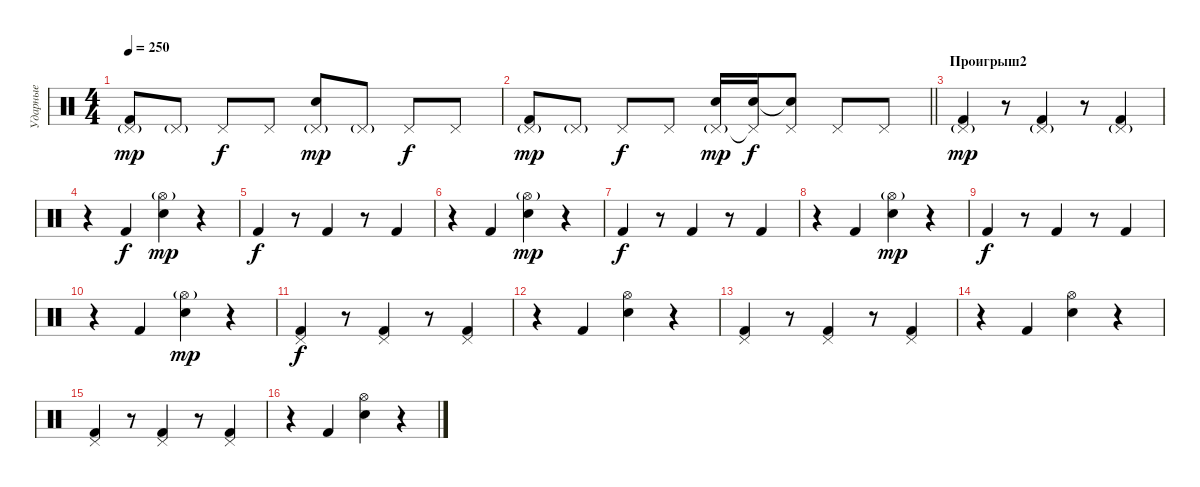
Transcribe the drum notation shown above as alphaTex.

\track ("Ударные" "Ударные") {instrument percussion}
\staff {score}
\articulation defaults
\ts (4 4)
\tempo 250
\clef neutral
\ks c
("Pedal Hi-Hat (hit)"{g} "Kick (hit) 2").8{dy mp} "Pedal Hi-Hat (hit)"{g}.8 "Pedal Hi-Hat (hit)".8{dy f} "Pedal Hi-Hat (hit)".8 ("Pedal Hi-Hat (hit)"{g} "Electric Snare (hit)").8{dy mp} "Pedal Hi-Hat (hit)"{g}.8 "Pedal Hi-Hat (hit)".8{dy f} "Pedal Hi-Hat (hit)".8 |
\barLineRight lightlight
("Pedal Hi-Hat (hit)"{g} "Kick (hit) 2").8{dy mp} "Pedal Hi-Hat (hit)"{g}.8 "Pedal Hi-Hat (hit)".8{dy f} "Pedal Hi-Hat (hit)".8 ("Pedal Hi-Hat (hit)"{g} "Electric Snare (hit)").16{dy mp} ("Pedal Hi-Hat (hit)"{t} "Electric Snare (hit)").16{dy f} ("Pedal Hi-Hat (hit)" "Snare (hit)"{t}).8 "Pedal Hi-Hat (hit)".8 "Pedal Hi-Hat (hit)".8 |
\section ("" "Проигрыш2")
("Kick (hit) 2" "Pedal Hi-Hat (hit)"{g}).4{dy mp} r.8 ("Kick (hit) 2" "Pedal Hi-Hat (hit)"{g}).4 r.8 ("Kick (hit) 2" "Pedal Hi-Hat (hit)"{g}).4 |
r.4 "Kick (hit) 2".4{dy f} ("Electric Snare (hit)" "Hi-Hat (open)"{g}).4{dy mp} r.4 |
"Kick (hit) 2".4{dy f} r.8 "Kick (hit) 2".4 r.8 "Kick (hit) 2".4 |
r.4 "Kick (hit) 2".4 ("Electric Snare (hit)" "Hi-Hat (open)"{g}).4{dy mp} r.4 |
"Kick (hit) 2".4{dy f} r.8 "Kick (hit) 2".4 r.8 "Kick (hit) 2".4 |
r.4 "Kick (hit) 2".4 ("Electric Snare (hit)" "Hi-Hat (open)"{g}).4{dy mp} r.4 |
"Kick (hit) 2".4{dy f} r.8 "Kick (hit) 2".4 r.8 "Kick (hit) 2".4 |
r.4 "Kick (hit) 2".4 ("Electric Snare (hit)" "Hi-Hat (open)"{g}).4{dy mp} r.4 |
("Kick (hit) 2" "Pedal Hi-Hat (hit)").4{dy f} r.8 ("Kick (hit) 2" "Pedal Hi-Hat (hit)").4 r.8 ("Kick (hit) 2" "Pedal Hi-Hat (hit)").4 |
r.4 "Kick (hit) 2".4 ("Electric Snare (hit)" "Hi-Hat (open)").4 r.4 |
("Kick (hit) 2" "Pedal Hi-Hat (hit)").4 r.8 ("Kick (hit) 2" "Pedal Hi-Hat (hit)").4 r.8 ("Kick (hit) 2" "Pedal Hi-Hat (hit)").4 |
r.4 "Kick (hit) 2".4 ("Electric Snare (hit)" "Hi-Hat (open)").4 r.4 |
("Kick (hit) 2" "Pedal Hi-Hat (hit)").4 r.8 ("Kick (hit) 2" "Pedal Hi-Hat (hit)").4 r.8 ("Kick (hit) 2" "Pedal Hi-Hat (hit)").4 |
r.4 "Kick (hit) 2".4 ("Electric Snare (hit)" "Hi-Hat (open)").4 r.4
